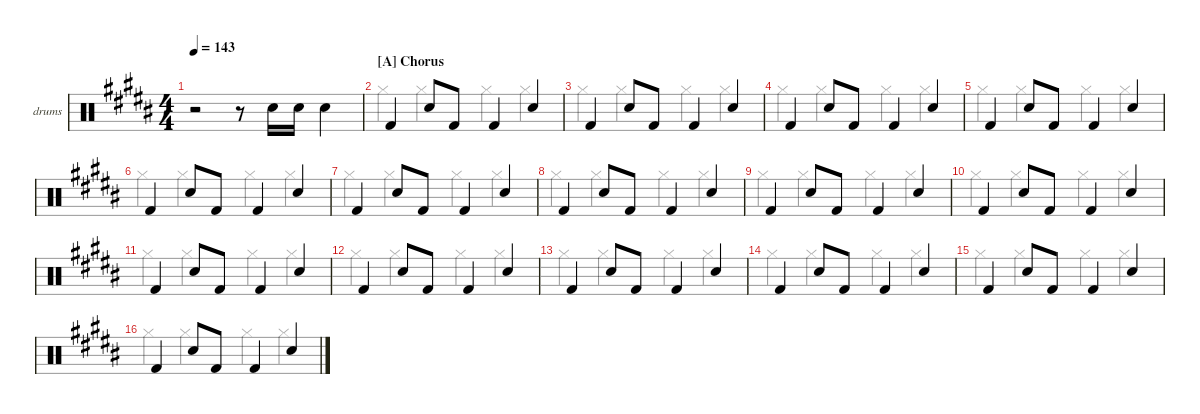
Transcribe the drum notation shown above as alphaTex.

\defaultSystemsLayout 4
\hideDynamics
\bracketExtendMode nobrackets
\firstSystemTrackNameOrientation horizontal
\otherSystemsTrackNameOrientation horizontal
\track ("Drumkit" "drums") {instrument percussion}
\staff {score}
\articulation defaults
\voice
\ts (4 4)
\tempo 143
\clef neutral
\ks g#minor
r.2{dy mf beam Down} r.8{beam Down} "Snare (hit) 2"{acc forcenatural}.16{beam Down} "Snare (hit) 2"{acc forcenatural}.16{beam Down} "Snare (hit) 2"{acc forcenatural}.4{beam Down} |
\section ("A" "Chorus")
"Kick (hit) 2"{acc forcenatural}.4{beam Up} "Snare (hit) 2"{acc forcenatural}.8{beam Up} "Kick (hit) 2"{acc forcenatural}.8{beam Up} "Kick (hit) 2"{acc forcenatural}.4{beam Up} "Snare (hit) 2"{acc forcenatural}.4{beam Up} |
"Kick (hit) 2"{acc forcenatural}.4{beam Up} "Snare (hit) 2"{acc forcenatural}.8{beam Up} "Kick (hit) 2"{acc forcenatural}.8{beam Up} "Kick (hit) 2"{acc forcenatural}.4{beam Up} "Snare (hit) 2"{acc forcenatural}.4{beam Up} |
"Kick (hit) 2"{acc forcenatural}.4{beam Up} "Snare (hit) 2"{acc forcenatural}.8{beam Up} "Kick (hit) 2"{acc forcenatural}.8{beam Up} "Kick (hit) 2"{acc forcenatural}.4{beam Up} "Snare (hit) 2"{acc forcenatural}.4{beam Up} |
"Kick (hit) 2"{acc forcenatural}.4{beam Up} "Snare (hit) 2"{acc forcenatural}.8{beam Up} "Kick (hit) 2"{acc forcenatural}.8{beam Up} "Kick (hit) 2"{acc forcenatural}.4{beam Up} "Snare (hit) 2"{acc forcenatural}.4{beam Up} |
"Kick (hit) 2"{acc forcenatural}.4{beam Up} "Snare (hit) 2"{acc forcenatural}.8{beam Up} "Kick (hit) 2"{acc forcenatural}.8{beam Up} "Kick (hit) 2"{acc forcenatural}.4{beam Up} "Snare (hit) 2"{acc forcenatural}.4{beam Up} |
"Kick (hit) 2"{acc forcenatural}.4{beam Up} "Snare (hit) 2"{acc forcenatural}.8{beam Up} "Kick (hit) 2"{acc forcenatural}.8{beam Up} "Kick (hit) 2"{acc forcenatural}.4{beam Up} "Snare (hit) 2"{acc forcenatural}.4{beam Up} |
"Kick (hit) 2"{acc forcenatural}.4{beam Up} "Snare (hit) 2"{acc forcenatural}.8{beam Up} "Kick (hit) 2"{acc forcenatural}.8{beam Up} "Kick (hit) 2"{acc forcenatural}.4{beam Up} "Snare (hit) 2"{acc forcenatural}.4{beam Up} |
"Kick (hit) 2"{acc forcenatural}.4{beam Up} "Snare (hit) 2"{acc forcenatural}.8{beam Up} "Kick (hit) 2"{acc forcenatural}.8{beam Up} "Kick (hit) 2"{acc forcenatural}.4{beam Up} "Snare (hit) 2"{acc forcenatural}.4{beam Up} |
"Kick (hit) 2"{acc forcenatural}.4{beam Up} "Snare (hit) 2"{acc forcenatural}.8{beam Up} "Kick (hit) 2"{acc forcenatural}.8{beam Up} "Kick (hit) 2"{acc forcenatural}.4{beam Up} "Snare (hit) 2"{acc forcenatural}.4{beam Up} |
"Kick (hit) 2"{acc forcenatural}.4{beam Up} "Snare (hit) 2"{acc forcenatural}.8{beam Up} "Kick (hit) 2"{acc forcenatural}.8{beam Up} "Kick (hit) 2"{acc forcenatural}.4{beam Up} "Snare (hit) 2"{acc forcenatural}.4{beam Up} |
"Kick (hit) 2"{acc forcenatural}.4{beam Up} "Snare (hit) 2"{acc forcenatural}.8{beam Up} "Kick (hit) 2"{acc forcenatural}.8{beam Up} "Kick (hit) 2"{acc forcenatural}.4{beam Up} "Snare (hit) 2"{acc forcenatural}.4{beam Up} |
"Kick (hit) 2"{acc forcenatural}.4{beam Up} "Snare (hit) 2"{acc forcenatural}.8{beam Up} "Kick (hit) 2"{acc forcenatural}.8{beam Up} "Kick (hit) 2"{acc forcenatural}.4{beam Up} "Snare (hit) 2"{acc forcenatural}.4{beam Up} |
"Kick (hit) 2"{acc forcenatural}.4{beam Up} "Snare (hit) 2"{acc forcenatural}.8{beam Up} "Kick (hit) 2"{acc forcenatural}.8{beam Up} "Kick (hit) 2"{acc forcenatural}.4{beam Up} "Snare (hit) 2"{acc forcenatural}.4{beam Up} |
"Kick (hit) 2"{acc forcenatural}.4{beam Up} "Snare (hit) 2"{acc forcenatural}.8{beam Up} "Kick (hit) 2"{acc forcenatural}.8{beam Up} "Kick (hit) 2"{acc forcenatural}.4{beam Up} "Snare (hit) 2"{acc forcenatural}.4{beam Up} |
"Kick (hit) 2"{acc forcenatural}.4{beam Up} "Snare (hit) 2"{acc forcenatural}.8{beam Up} "Kick (hit) 2"{acc forcenatural}.8{beam Up} "Kick (hit) 2"{acc forcenatural}.4{beam Up} "Snare (hit) 2"{acc forcenatural}.4{beam Up}
\voice
\clef neutral
\ottava regular
\simile none
\ks g#minor
|
"Hi-Hat (closed)"{acc forcenatural}.4{beam Down} "Hi-Hat (closed)"{acc forcenatural}.4{beam Down} "Hi-Hat (closed)"{acc forcenatural}.4{beam Down} "Hi-Hat (closed)"{acc forcenatural}.4{beam Down} |
"Hi-Hat (closed)"{acc forcenatural}.4{beam Down} "Hi-Hat (closed)"{acc forcenatural}.4{beam Down} "Hi-Hat (closed)"{acc forcenatural}.4{beam Down} "Hi-Hat (closed)"{acc forcenatural}.4{beam Down} |
"Hi-Hat (closed)"{acc forcenatural}.4{beam Down} "Hi-Hat (closed)"{acc forcenatural}.4{beam Down} "Hi-Hat (closed)"{acc forcenatural}.4{beam Down} "Hi-Hat (closed)"{acc forcenatural}.4{beam Down} |
"Hi-Hat (closed)"{acc forcenatural}.4{beam Down} "Hi-Hat (closed)"{acc forcenatural}.4{beam Down} "Hi-Hat (closed)"{acc forcenatural}.4{beam Down} "Hi-Hat (closed)"{acc forcenatural}.4{beam Down} |
"Hi-Hat (closed)"{acc forcenatural}.4{beam Down} "Hi-Hat (closed)"{acc forcenatural}.4{beam Down} "Hi-Hat (closed)"{acc forcenatural}.4{beam Down} "Hi-Hat (closed)"{acc forcenatural}.4{beam Down} |
"Hi-Hat (closed)"{acc forcenatural}.4{beam Down} "Hi-Hat (closed)"{acc forcenatural}.4{beam Down} "Hi-Hat (closed)"{acc forcenatural}.4{beam Down} "Hi-Hat (closed)"{acc forcenatural}.4{beam Down} |
"Hi-Hat (closed)"{acc forcenatural}.4{beam Down} "Hi-Hat (closed)"{acc forcenatural}.4{beam Down} "Hi-Hat (closed)"{acc forcenatural}.4{beam Down} "Hi-Hat (closed)"{acc forcenatural}.4{beam Down} |
"Hi-Hat (closed)"{acc forcenatural}.4{beam Down} "Hi-Hat (closed)"{acc forcenatural}.4{beam Down} "Hi-Hat (closed)"{acc forcenatural}.4{beam Down} "Hi-Hat (closed)"{acc forcenatural}.4{beam Down} |
"Hi-Hat (closed)"{acc forcenatural}.4{beam Down} "Hi-Hat (closed)"{acc forcenatural}.4{beam Down} "Hi-Hat (closed)"{acc forcenatural}.4{beam Down} "Hi-Hat (closed)"{acc forcenatural}.4{beam Down} |
"Hi-Hat (closed)"{acc forcenatural}.4{beam Down} "Hi-Hat (closed)"{acc forcenatural}.4{beam Down} "Hi-Hat (closed)"{acc forcenatural}.4{beam Down} "Hi-Hat (closed)"{acc forcenatural}.4{beam Down} |
"Hi-Hat (closed)"{acc forcenatural}.4{beam Down} "Hi-Hat (closed)"{acc forcenatural}.4{beam Down} "Hi-Hat (closed)"{acc forcenatural}.4{beam Down} "Hi-Hat (closed)"{acc forcenatural}.4{beam Down} |
"Hi-Hat (closed)"{acc forcenatural}.4{beam Down} "Hi-Hat (closed)"{acc forcenatural}.4{beam Down} "Hi-Hat (closed)"{acc forcenatural}.4{beam Down} "Hi-Hat (closed)"{acc forcenatural}.4{beam Down} |
"Hi-Hat (closed)"{acc forcenatural}.4{beam Down} "Hi-Hat (closed)"{acc forcenatural}.4{beam Down} "Hi-Hat (closed)"{acc forcenatural}.4{beam Down} "Hi-Hat (closed)"{acc forcenatural}.4{beam Down} |
"Hi-Hat (closed)"{acc forcenatural}.4{beam Down} "Hi-Hat (closed)"{acc forcenatural}.4{beam Down} "Hi-Hat (closed)"{acc forcenatural}.4{beam Down} "Hi-Hat (closed)"{acc forcenatural}.4{beam Down} |
"Hi-Hat (closed)"{acc forcenatural}.4{beam Down} "Hi-Hat (closed)"{acc forcenatural}.4{beam Down} "Hi-Hat (closed)"{acc forcenatural}.4{beam Down} "Hi-Hat (closed)"{acc forcenatural}.4{beam Down}
